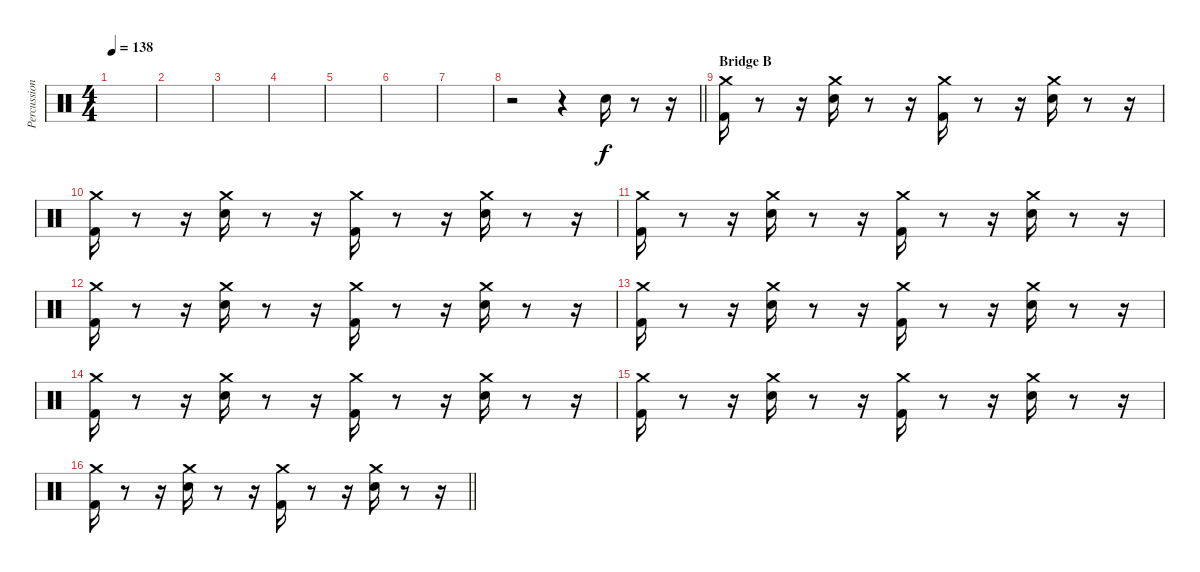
\track ("Percussion" "Percussion") {instrument percussion}
\staff {score}
\articulation defaults
\ts (4 4)
\tempo 138
\clef neutral
\ks c
|
|
|
|
|
|
|
\barLineRight lightlight
r.2 r.4 "Electric Snare (hit)".16 r.8 r.16 |
\section ("" "Bridge B")
("Kick (hit) 2" "Crash medium (hit)").16 r.8 r.16 ("Snare (hit) 2" "Crash medium (hit)").16 r.8 r.16 ("Kick (hit) 2" "Crash medium (hit)").16 r.8 r.16 ("Snare (hit) 2" "Crash medium (hit)").16 r.8 r.16 |
("Kick (hit) 2" "Crash medium (hit)").16 r.8 r.16 ("Snare (hit) 2" "Crash medium (hit)").16 r.8 r.16 ("Kick (hit) 2" "Crash medium (hit)").16 r.8 r.16 ("Snare (hit) 2" "Crash medium (hit)").16 r.8 r.16 |
("Kick (hit) 2" "Crash medium (hit)").16 r.8 r.16 ("Snare (hit) 2" "Crash medium (hit)").16 r.8 r.16 ("Kick (hit) 2" "Crash medium (hit)").16 r.8 r.16 ("Snare (hit) 2" "Crash medium (hit)").16 r.8 r.16 |
("Kick (hit) 2" "Crash medium (hit)").16 r.8 r.16 ("Snare (hit) 2" "Crash medium (hit)").16 r.8 r.16 ("Kick (hit) 2" "Crash medium (hit)").16 r.8 r.16 ("Snare (hit) 2" "Crash medium (hit)").16 r.8 r.16 |
("Kick (hit) 2" "Crash medium (hit)").16 r.8 r.16 ("Snare (hit) 2" "Crash medium (hit)").16 r.8 r.16 ("Kick (hit) 2" "Crash medium (hit)").16 r.8 r.16 ("Snare (hit) 2" "Crash medium (hit)").16 r.8 r.16 |
("Kick (hit) 2" "Crash medium (hit)").16 r.8 r.16 ("Snare (hit) 2" "Crash medium (hit)").16 r.8 r.16 ("Kick (hit) 2" "Crash medium (hit)").16 r.8 r.16 ("Snare (hit) 2" "Crash medium (hit)").16 r.8 r.16 |
("Kick (hit) 2" "Crash medium (hit)").16 r.8 r.16 ("Snare (hit) 2" "Crash medium (hit)").16 r.8 r.16 ("Kick (hit) 2" "Crash medium (hit)").16 r.8 r.16 ("Snare (hit) 2" "Crash medium (hit)").16 r.8 r.16 |
\barLineRight lightlight
("Kick (hit) 2" "Crash medium (hit)").16 r.8 r.16 ("Snare (hit) 2" "Crash medium (hit)").16 r.8 r.16 ("Kick (hit) 2" "Crash medium (hit)").16 r.8 r.16 ("Snare (hit) 2" "Crash medium (hit)").16 r.8 r.16
